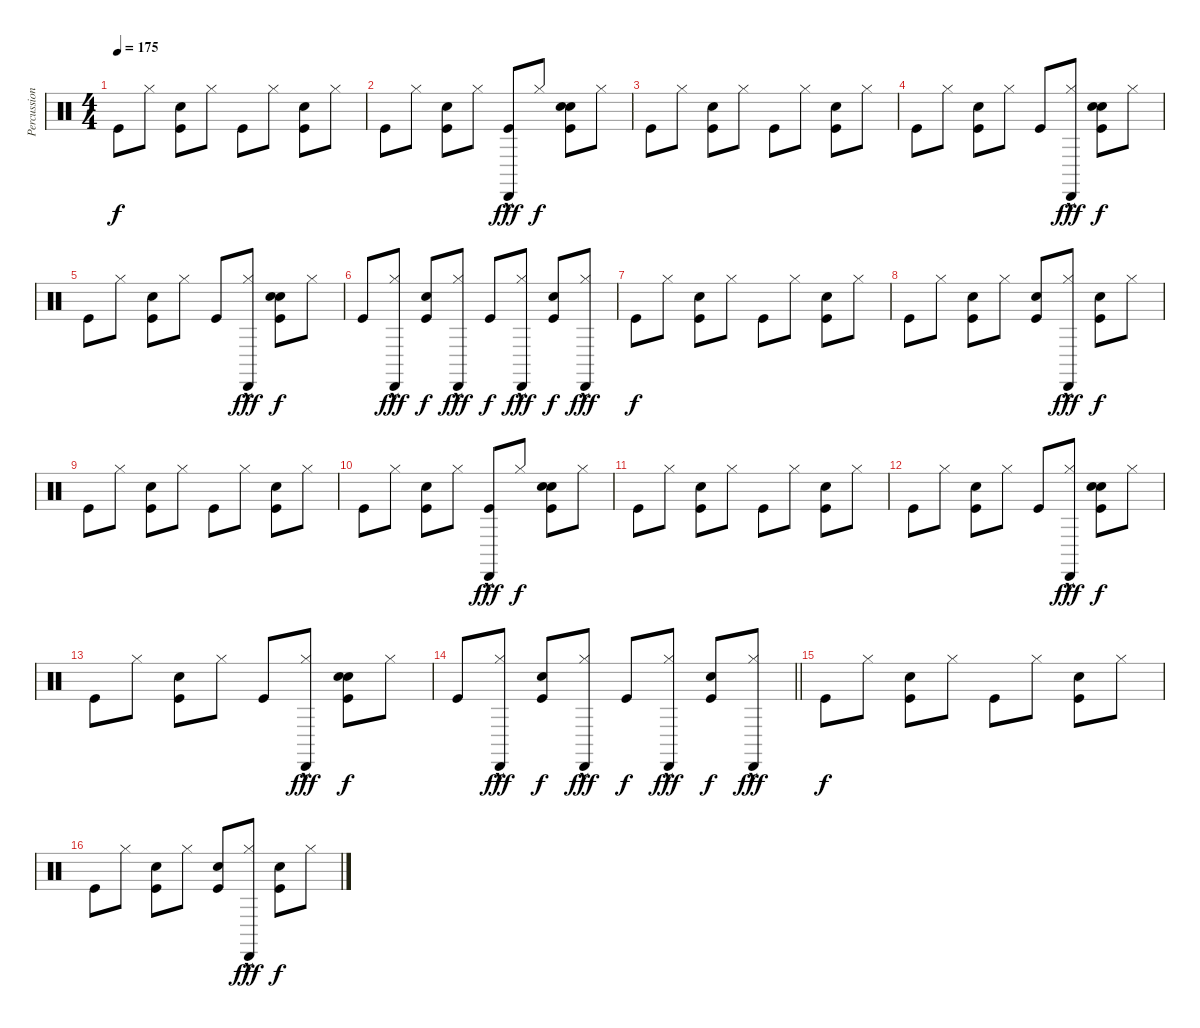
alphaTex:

\track ("Percussion" "Percussion") {instrument percussion}
\staff {score}
\articulation defaults
\ts (4 4)
\tempo 175
\clef neutral
\ks c "Kick (hit)".8{dy f} "Hi-Hat (closed)".8
("Kick (hit)" "Snare (hit) 2").8 "Hi-Hat (closed)".8 "Kick (hit)".8 "Hi-Hat (closed)".8 ("Kick (hit)" "Snare (hit) 2").8 "Hi-Hat (closed)".8 |
"Kick (hit)".8 "Hi-Hat (closed)".8 ("Kick (hit)" "Snare (hit) 2").8 "Hi-Hat (closed)".8 ("Kick (hit)" "Cabasa (hit)"{hac}).8{dy fff} "Hi-Hat (closed)".8{dy f} ("Kick (hit)" "Snare (hit) 2" "Hand Clap (hit)").8 "Hi-Hat (closed)".8 |
"Kick (hit)".8 "Hi-Hat (closed)".8 ("Kick (hit)" "Snare (hit) 2").8 "Hi-Hat (closed)".8 "Kick (hit)".8 "Hi-Hat (closed)".8 ("Kick (hit)" "Snare (hit) 2").8 "Hi-Hat (closed)".8 |
"Kick (hit)".8 "Hi-Hat (closed)".8 ("Kick (hit)" "Snare (hit) 2").8 "Hi-Hat (closed)".8 "Kick (hit)".8 ("Hi-Hat (closed)" "Cabasa (hit)"{hac}).8{dy fff} ("Kick (hit)" "Snare (hit) 2" "Hand Clap (hit)").8{dy f} "Hi-Hat (closed)".8 |
"Kick (hit)".8 "Hi-Hat (closed)".8 ("Kick (hit)" "Snare (hit) 2").8 "Hi-Hat (closed)".8 "Kick (hit)".8 ("Hi-Hat (closed)" "Cabasa (hit)"{hac}).8{dy fff} ("Kick (hit)" "Snare (hit) 2" "Hand Clap (hit)").8{dy f} "Hi-Hat (closed)".8 |
"Kick (hit)".8 ("Hi-Hat (closed)" "Cabasa (hit)"{hac}).8{dy fff} ("Kick (hit)" "Snare (hit) 2").8{dy f} ("Hi-Hat (closed)" "Cabasa (hit)"{hac}).8{dy fff} "Kick (hit)".8{dy f} ("Hi-Hat (closed)" "Cabasa (hit)"{hac}).8{dy fff} ("Kick (hit)" "Snare (hit) 2").8{dy f} ("Hi-Hat (closed)" "Cabasa (hit)"{hac}).8{dy fff} |
"Kick (hit)".8{dy f} "Hi-Hat (closed)".8 ("Kick (hit)" "Snare (hit) 2").8 "Hi-Hat (closed)".8 "Kick (hit)".8 "Hi-Hat (closed)".8 ("Kick (hit)" "Snare (hit) 2").8 "Hi-Hat (closed)".8 |
"Kick (hit)".8 "Hi-Hat (closed)".8 ("Kick (hit)" "Snare (hit) 2").8 "Hi-Hat (closed)".8 ("Kick (hit)" "Hand Clap (hit)").8 ("Hi-Hat (closed)" "Cabasa (hit)"{hac}).8{dy fff} ("Kick (hit)" "Snare (hit) 2").8{dy f} "Hi-Hat (closed)".8 |
"Kick (hit)".8 "Hi-Hat (closed)".8 ("Kick (hit)" "Snare (hit) 2").8 "Hi-Hat (closed)".8 "Kick (hit)".8 "Hi-Hat (closed)".8 ("Kick (hit)" "Snare (hit) 2").8 "Hi-Hat (closed)".8 |
"Kick (hit)".8 "Hi-Hat (closed)".8 ("Kick (hit)" "Snare (hit) 2").8 "Hi-Hat (closed)".8 ("Kick (hit)" "Cabasa (hit)"{hac}).8{dy fff} "Hi-Hat (closed)".8{dy f} ("Kick (hit)" "Snare (hit) 2" "Hand Clap (hit)").8 "Hi-Hat (closed)".8 |
"Kick (hit)".8 "Hi-Hat (closed)".8 ("Kick (hit)" "Snare (hit) 2").8 "Hi-Hat (closed)".8 "Kick (hit)".8 "Hi-Hat (closed)".8 ("Kick (hit)" "Snare (hit) 2").8 "Hi-Hat (closed)".8 |
"Kick (hit)".8 "Hi-Hat (closed)".8 ("Kick (hit)" "Snare (hit) 2").8 "Hi-Hat (closed)".8 "Kick (hit)".8 ("Hi-Hat (closed)" "Cabasa (hit)"{hac}).8{dy fff} ("Kick (hit)" "Snare (hit) 2" "Hand Clap (hit)").8{dy f} "Hi-Hat (closed)".8 |
"Kick (hit)".8 "Hi-Hat (closed)".8 ("Kick (hit)" "Snare (hit) 2").8 "Hi-Hat (closed)".8 "Kick (hit)".8 ("Hi-Hat (closed)" "Cabasa (hit)"{hac}).8{dy fff} ("Kick (hit)" "Snare (hit) 2" "Hand Clap (hit)").8{dy f} "Hi-Hat (closed)".8 |
\barLineRight lightlight "Kick (hit)".8
("Hi-Hat (closed)" "Cabasa (hit)"{hac}).8{dy fff} ("Kick (hit)" "Snare (hit) 2").8{dy f} ("Hi-Hat (closed)" "Cabasa (hit)"{hac}).8{dy fff} "Kick (hit)".8{dy f} ("Hi-Hat (closed)" "Cabasa (hit)"{hac}).8{dy fff} ("Kick (hit)" "Snare (hit) 2").8{dy f} ("Hi-Hat (closed)" "Cabasa (hit)"{hac}).8{dy fff} |
"Kick (hit)".8{dy f} "Hi-Hat (closed)".8 ("Kick (hit)" "Snare (hit) 2").8 "Hi-Hat (closed)".8 "Kick (hit)".8 "Hi-Hat (closed)".8 ("Kick (hit)" "Snare (hit) 2").8 "Hi-Hat (closed)".8 |
"Kick (hit)".8 "Hi-Hat (closed)".8 ("Kick (hit)" "Snare (hit) 2").8 "Hi-Hat (closed)".8 ("Kick (hit)" "Hand Clap (hit)").8 ("Hi-Hat (closed)" "Cabasa (hit)"{hac}).8{dy fff} ("Kick (hit)" "Snare (hit) 2").8{dy f} "Hi-Hat (closed)".8
